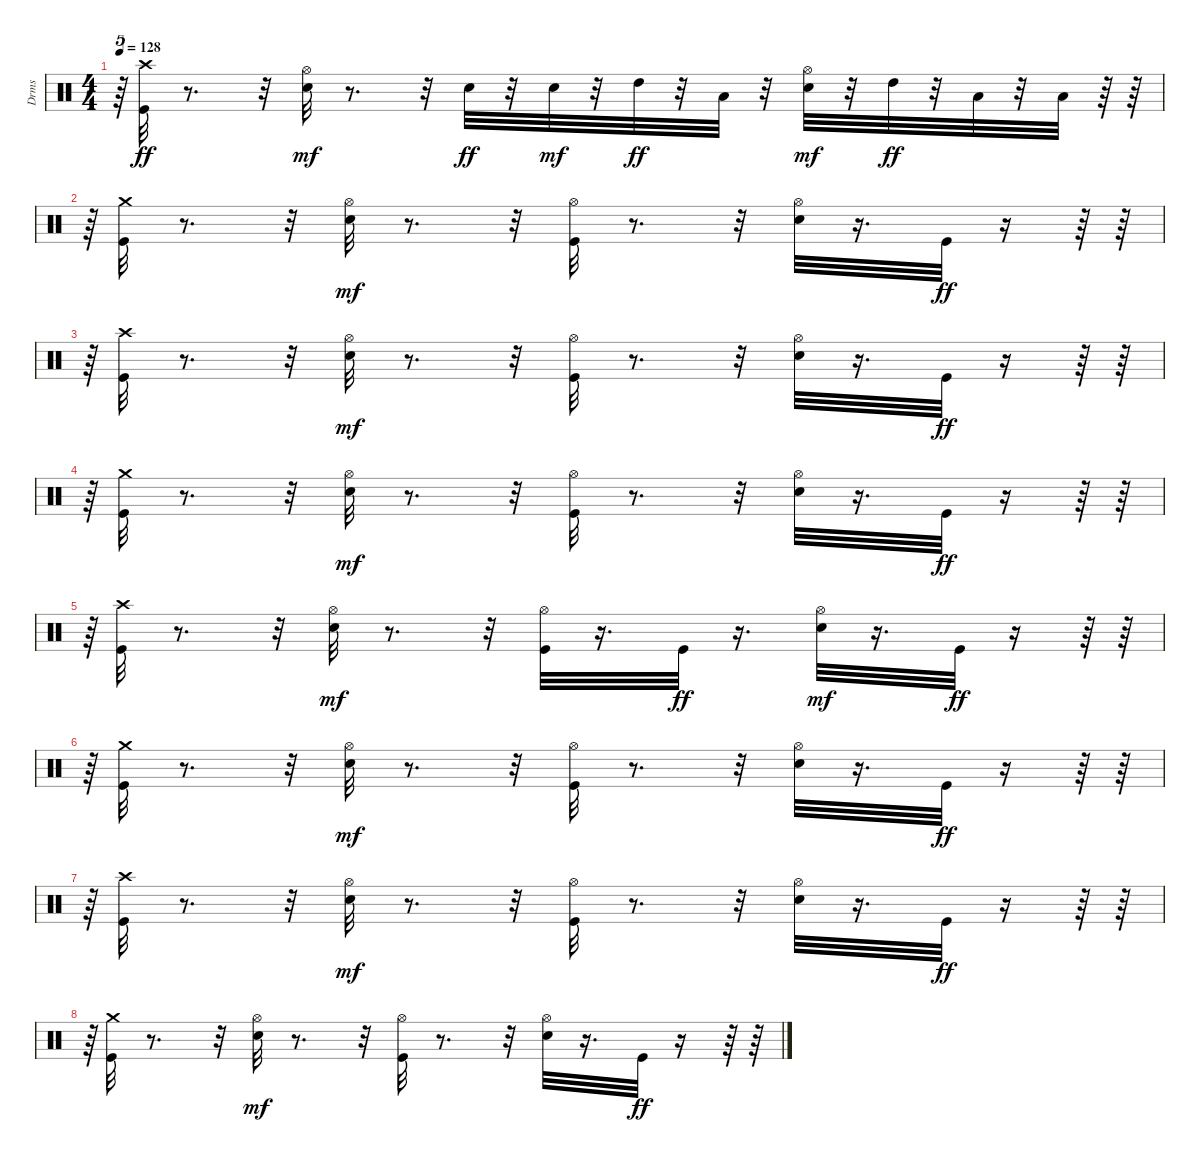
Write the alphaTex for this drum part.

\track ("Drms" "Drms") {instrument percussion}
\staff {score}
\articulation defaults
\ts (4 4)
\tempo 128
\clef neutral
\ks c
r.64{tu (5 4) dy ff} ("Kick (hit)" "Crash high (hit)").32 r.8{d} r.32 ("Snare (hit) 2" "Hi-Hat (open)").32{dy mf} r.8{d} r.32 "Snare (hit) 2".32{dy ff} r.32 "Snare (hit) 2".32{dy mf} r.32 "High Tom (hit)".32{dy ff} r.32 "Low Tom (hit)".32 r.32 ("Snare (hit) 2" "Hi-Hat (open)").32{dy mf} r.32 "High Tom (hit)".32{dy ff} r.32 "Low Tom (hit)".32 r.32 "Low Floor Tom (hit)".32 r.64 r.64 |
r.64{tu (5 4)} ("Kick (hit)" "Crash medium (hit)").32 r.8{d} r.32 ("Snare (hit) 2" "Hi-Hat (open)").32{dy mf} r.8{d} r.32 ("Kick (hit)" "Hi-Hat (open)").32 r.8{d} r.32 ("Snare (hit) 2" "Hi-Hat (open)").32 r.16{d} "Kick (hit)".32{dy ff} r.16 r.64 r.64 |
r.64{tu (5 4)} ("Kick (hit)" "Crash high (hit)").32 r.8{d} r.32 ("Snare (hit) 2" "Hi-Hat (open)").32{dy mf} r.8{d} r.32 ("Kick (hit)" "Hi-Hat (open)").32 r.8{d} r.32 ("Snare (hit) 2" "Hi-Hat (open)").32 r.16{d} "Kick (hit)".32{dy ff} r.16 r.64 r.64 |
r.64{tu (5 4)} ("Kick (hit)" "Crash medium (hit)").32 r.8{d} r.32 ("Snare (hit) 2" "Hi-Hat (open)").32{dy mf} r.8{d} r.32 ("Kick (hit)" "Hi-Hat (open)").32 r.8{d} r.32 ("Snare (hit) 2" "Hi-Hat (open)").32 r.16{d} "Kick (hit)".32{dy ff} r.16 r.64 r.64 |
r.64{tu (5 4)} ("Kick (hit)" "Crash high (hit)").32 r.8{d} r.32 ("Snare (hit) 2" "Hi-Hat (open)").32{dy mf} r.8{d} r.32 ("Kick (hit)" "Hi-Hat (open)").32 r.16{d} "Kick (hit)".32{dy ff} r.16{d} ("Snare (hit) 2" "Hi-Hat (open)").32{dy mf} r.16{d} "Kick (hit)".32{dy ff} r.16 r.64 r.64 |
r.64{tu (5 4)} ("Kick (hit)" "Crash medium (hit)").32 r.8{d} r.32 ("Snare (hit) 2" "Hi-Hat (open)").32{dy mf} r.8{d} r.32 ("Kick (hit)" "Hi-Hat (open)").32 r.8{d} r.32 ("Snare (hit) 2" "Hi-Hat (open)").32 r.16{d} "Kick (hit)".32{dy ff} r.16 r.64 r.64 |
r.64{tu (5 4)} ("Kick (hit)" "Crash high (hit)").32 r.8{d} r.32 ("Snare (hit) 2" "Hi-Hat (open)").32{dy mf} r.8{d} r.32 ("Kick (hit)" "Hi-Hat (open)").32 r.8{d} r.32 ("Snare (hit) 2" "Hi-Hat (open)").32 r.16{d} "Kick (hit)".32{dy ff} r.16 r.64 r.64 |
r.64{tu (5 4)} ("Kick (hit)" "Crash medium (hit)").32 r.8{d} r.32 ("Snare (hit) 2" "Hi-Hat (open)").32{dy mf} r.8{d} r.32 ("Kick (hit)" "Hi-Hat (open)").32 r.8{d} r.32 ("Snare (hit) 2" "Hi-Hat (open)").32 r.16{d} "Kick (hit)".32{dy ff} r.16 r.64 r.64
